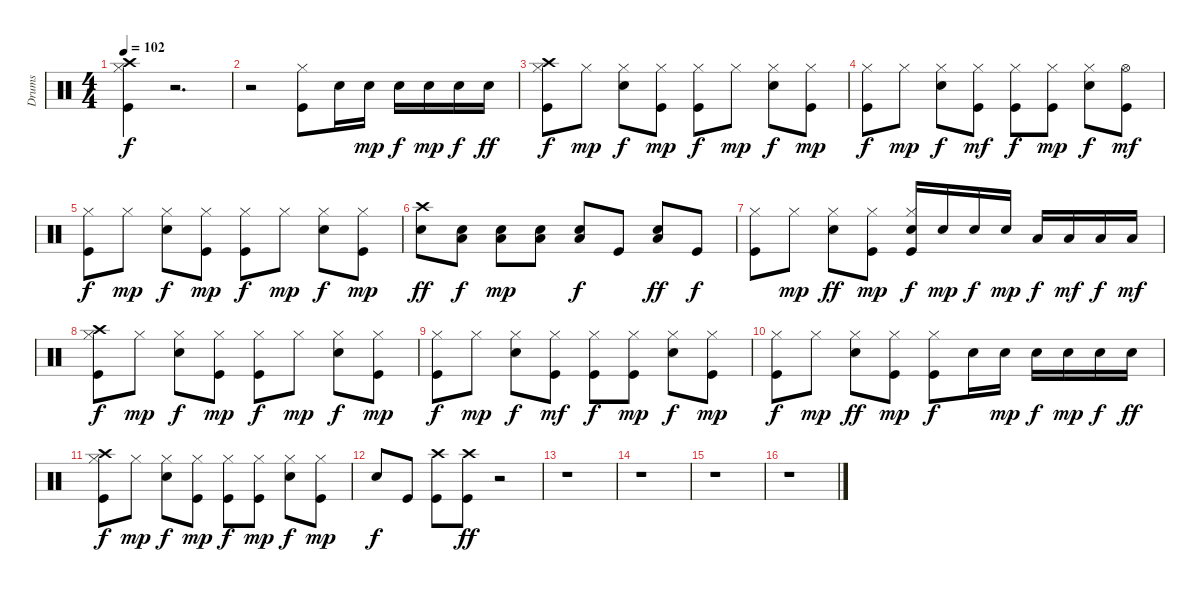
\track ("Drums" "Drums") {instrument percussion}
\staff {score}
\articulation defaults
\ts (4 4)
\tempo 102
\clef neutral
\ks c
("Kick (hit)" "Hi-Hat (closed)" "Crash high (hit)").4{dy f} r.2{d} |
r.2 ("Kick (hit)" "Hi-Hat (closed)").8 "Snare (hit) 2".16 "Snare (hit) 2".16{dy mp} "Snare (hit) 2".16{dy f} "Snare (hit) 2".16{dy mp} "Snare (hit) 2".16{dy f} "Snare (hit) 2".16{dy ff} |
("Kick (hit)" "Hi-Hat (closed)" "Crash high (hit)").8{dy f} "Hi-Hat (closed)".8{dy mp} ("Snare (hit) 2" "Hi-Hat (closed)").8{dy f} ("Kick (hit)" "Hi-Hat (closed)").8{dy mp} ("Kick (hit)" "Hi-Hat (closed)").8{dy f} "Hi-Hat (closed)".8{dy mp} ("Snare (hit) 2" "Hi-Hat (closed)").8{dy f} ("Kick (hit)" "Hi-Hat (closed)").8{dy mp} |
("Kick (hit)" "Hi-Hat (closed)").8{dy f} "Hi-Hat (closed)".8{dy mp} ("Snare (hit) 2" "Hi-Hat (closed)").8{dy f} ("Kick (hit)" "Hi-Hat (closed)").8{dy mf} ("Kick (hit)" "Hi-Hat (closed)").8{dy f} ("Kick (hit)" "Hi-Hat (closed)").8{dy mp} ("Snare (hit) 2" "Hi-Hat (closed)").8{dy f} ("Kick (hit)" "Hi-Hat (open)").8{dy mf} |
("Kick (hit)" "Hi-Hat (closed)").8{dy f} "Hi-Hat (closed)".8{dy mp} ("Snare (hit) 2" "Hi-Hat (closed)").8{dy f} ("Kick (hit)" "Hi-Hat (closed)").8{dy mp} ("Kick (hit)" "Hi-Hat (closed)").8{dy f} "Hi-Hat (closed)".8{dy mp} ("Snare (hit) 2" "Hi-Hat (closed)").8{dy f} ("Kick (hit)" "Hi-Hat (closed)").8{dy mp} |
("Snare (hit) 2" "Crash high (hit)").8{dy ff} ("Snare (hit) 2" "Low Floor Tom (hit)").8{dy f} ("Snare (hit) 2" "Low Floor Tom (hit)").8{dy mp} ("Snare (hit) 2" "Low Floor Tom (hit)").8 ("Snare (hit) 2" "Low Floor Tom (hit)").8{dy f} "Kick (hit)".8 ("Snare (hit) 2" "Low Floor Tom (hit)").8{dy ff} "Kick (hit)".8{dy f} |
("Kick (hit)" "Hi-Hat (closed)").8 "Hi-Hat (closed)".8{dy mp} ("Snare (hit) 2" "Hi-Hat (closed)").8{dy ff} ("Kick (hit)" "Hi-Hat (closed)").8{dy mp} ("Kick (hit)" "Snare (hit) 2" "Hi-Hat (closed)").16{dy f} "Snare (hit) 2".16{dy mp} "Snare (hit) 2".16{dy f} "Snare (hit) 2".16{dy mp} "Low Tom (hit)".16{dy f} "Low Tom (hit)".16{dy mf} "Low Tom (hit)".16{dy f} "Low Tom (hit)".16{dy mf} |
("Kick (hit)" "Hi-Hat (closed)" "Crash high (hit)").8{dy f} "Hi-Hat (closed)".8{dy mp} ("Snare (hit) 2" "Hi-Hat (closed)").8{dy f} ("Kick (hit)" "Hi-Hat (closed)").8{dy mp} ("Kick (hit)" "Hi-Hat (closed)").8{dy f} "Hi-Hat (closed)".8{dy mp} ("Snare (hit) 2" "Hi-Hat (closed)").8{dy f} ("Kick (hit)" "Hi-Hat (closed)").8{dy mp} |
("Kick (hit)" "Hi-Hat (closed)").8{dy f} "Hi-Hat (closed)".8{dy mp} ("Snare (hit) 2" "Hi-Hat (closed)").8{dy f} ("Kick (hit)" "Hi-Hat (closed)").8{dy mf} ("Kick (hit)" "Hi-Hat (closed)").8{dy f} ("Kick (hit)" "Hi-Hat (closed)").8{dy mp} ("Snare (hit) 2" "Hi-Hat (closed)").8{dy f} ("Kick (hit)" "Hi-Hat (closed)").8{dy mp} |
("Kick (hit)" "Hi-Hat (closed)").8{dy f} "Hi-Hat (closed)".8{dy mp} ("Snare (hit) 2" "Hi-Hat (closed)").8{dy ff} ("Kick (hit)" "Hi-Hat (closed)").8{dy mp} ("Kick (hit)" "Hi-Hat (closed)").8{dy f} "Snare (hit) 2".16 "Snare (hit) 2".16{dy mp} "Snare (hit) 2".16{dy f} "Snare (hit) 2".16{dy mp} "Snare (hit) 2".16{dy f} "Snare (hit) 2".16{dy ff} |
("Kick (hit)" "Hi-Hat (closed)" "Crash high (hit)").8{dy f} "Hi-Hat (closed)".8{dy mp} ("Snare (hit) 2" "Hi-Hat (closed)").8{dy f} ("Kick (hit)" "Hi-Hat (closed)").8{dy mp} ("Kick (hit)" "Hi-Hat (closed)").8{dy f} ("Kick (hit)" "Hi-Hat (closed)").8{dy mp} ("Snare (hit) 2" "Hi-Hat (closed)").8{dy f} ("Kick (hit)" "Hi-Hat (closed)").8{dy mp} |
"Snare (hit) 2".8{dy f} "Kick (hit)".8 ("Kick (hit)" "Crash high (hit)").8 ("Kick (hit)" "Crash high (hit)").8{dy ff} r.2 |
r.1 |
r.1 |
r.1 |
r.1
